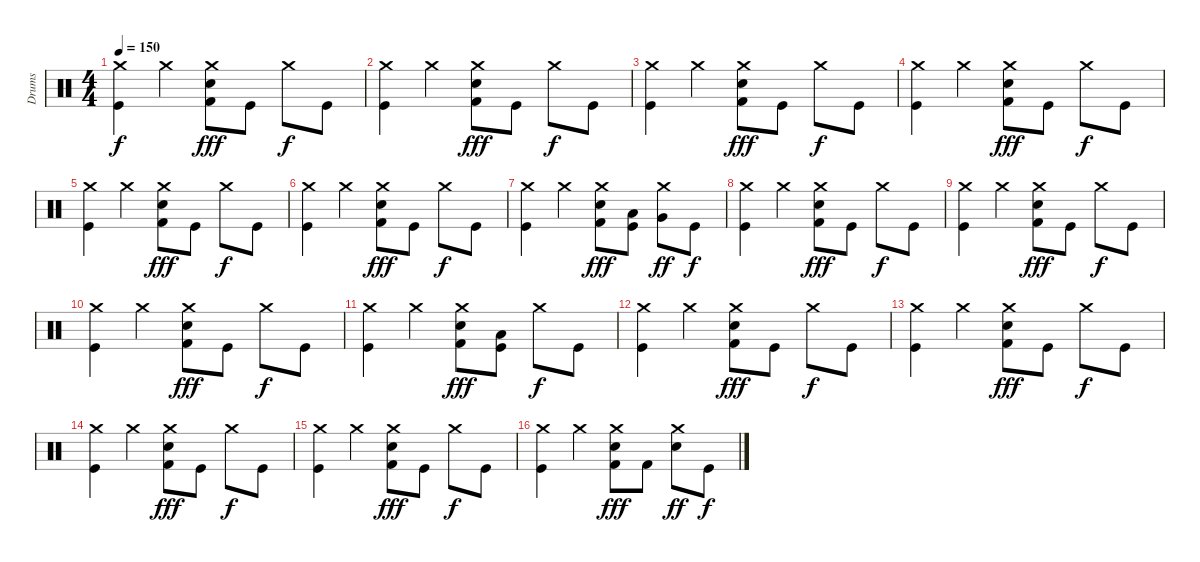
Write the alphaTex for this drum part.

\track ("Drums" "Drums") {instrument percussion}
\staff {score}
\articulation defaults
\ts (4 4)
\tempo 150
\clef neutral
\ks c
("Crash medium (hit)" "Kick (hit)").4{dy f} "Crash medium (hit)".4 ("Crash medium (hit)" "Electric Snare (hit)" "Kick (hit) 2").8{dy fff} "Kick (hit)".8 "Crash medium (hit)".8{dy f} "Kick (hit)".8 |
("Crash medium (hit)" "Kick (hit)").4 "Crash medium (hit)".4 ("Crash medium (hit)" "Electric Snare (hit)" "Kick (hit) 2").8{dy fff} "Kick (hit)".8 "Crash medium (hit)".8{dy f} "Kick (hit)".8 |
("Crash medium (hit)" "Kick (hit)").4 "Crash medium (hit)".4 ("Crash medium (hit)" "Electric Snare (hit)" "Kick (hit) 2").8{dy fff} "Kick (hit)".8 "Crash medium (hit)".8{dy f} "Kick (hit)".8 |
("Crash medium (hit)" "Kick (hit)").4 "Crash medium (hit)".4 ("Crash medium (hit)" "Electric Snare (hit)" "Kick (hit) 2").8{dy fff} "Kick (hit)".8 "Crash medium (hit)".8{dy f} "Kick (hit)".8 |
("Crash medium (hit)" "Kick (hit)").4 "Crash medium (hit)".4 ("Crash medium (hit)" "Electric Snare (hit)" "Kick (hit) 2").8{dy fff} "Kick (hit)".8 "Crash medium (hit)".8{dy f} "Kick (hit)".8 |
("Crash medium (hit)" "Kick (hit)").4 "Crash medium (hit)".4 ("Crash medium (hit)" "Electric Snare (hit)" "Kick (hit) 2").8{dy fff} "Kick (hit)".8 "Crash medium (hit)".8{dy f} "Kick (hit)".8 |
("Crash medium (hit)" "Kick (hit)").4 "Crash medium (hit)".4 ("Crash medium (hit)" "Electric Snare (hit)" "Kick (hit) 2").8{dy fff} ("Low Tom (hit)" "Kick (hit)").8 ("Crash medium (hit)" "Very Low Tom (hit)").8{dy ff} "Kick (hit)".8{dy f} |
("Crash medium (hit)" "Kick (hit)").4 "Crash medium (hit)".4 ("Crash medium (hit)" "Electric Snare (hit)" "Kick (hit) 2").8{dy fff} "Kick (hit)".8 "Crash medium (hit)".8{dy f} "Kick (hit)".8 |
("Crash medium (hit)" "Kick (hit)").4 "Crash medium (hit)".4 ("Crash medium (hit)" "Electric Snare (hit)" "Kick (hit) 2").8{dy fff} "Kick (hit)".8 "Crash medium (hit)".8{dy f} "Kick (hit)".8 |
("Crash medium (hit)" "Kick (hit)").4 "Crash medium (hit)".4 ("Crash medium (hit)" "Electric Snare (hit)" "Kick (hit) 2").8{dy fff} "Kick (hit)".8 "Crash medium (hit)".8{dy f} "Kick (hit)".8 |
("Crash medium (hit)" "Kick (hit)").4 "Crash medium (hit)".4 ("Crash medium (hit)" "Electric Snare (hit)" "Kick (hit) 2").8{dy fff} ("Low Tom (hit)" "Kick (hit)").8 "Crash medium (hit)".8{dy f} "Kick (hit)".8 |
("Crash medium (hit)" "Kick (hit)").4 "Crash medium (hit)".4 ("Crash medium (hit)" "Electric Snare (hit)" "Kick (hit) 2").8{dy fff} "Kick (hit)".8 "Crash medium (hit)".8{dy f} "Kick (hit)".8 |
("Crash medium (hit)" "Kick (hit)").4 "Crash medium (hit)".4 ("Crash medium (hit)" "Electric Snare (hit)" "Kick (hit) 2").8{dy fff} "Kick (hit)".8 "Crash medium (hit)".8{dy f} "Kick (hit)".8 |
("Crash medium (hit)" "Kick (hit)").4 "Crash medium (hit)".4 ("Crash medium (hit)" "Electric Snare (hit)" "Kick (hit) 2").8{dy fff} "Kick (hit)".8 "Crash medium (hit)".8{dy f} "Kick (hit)".8 |
("Crash medium (hit)" "Kick (hit)").4 "Crash medium (hit)".4 ("Crash medium (hit)" "Electric Snare (hit)" "Kick (hit) 2").8{dy fff} "Kick (hit)".8 "Crash medium (hit)".8{dy f} "Kick (hit)".8 |
("Crash medium (hit)" "Kick (hit)").4 "Crash medium (hit)".4 ("Crash medium (hit)" "Electric Snare (hit)" "Kick (hit) 2").8{dy fff} "Kick (hit) 2".8 ("Crash medium (hit)" "Electric Snare (hit)").8{dy ff} "Kick (hit)".8{dy f}
